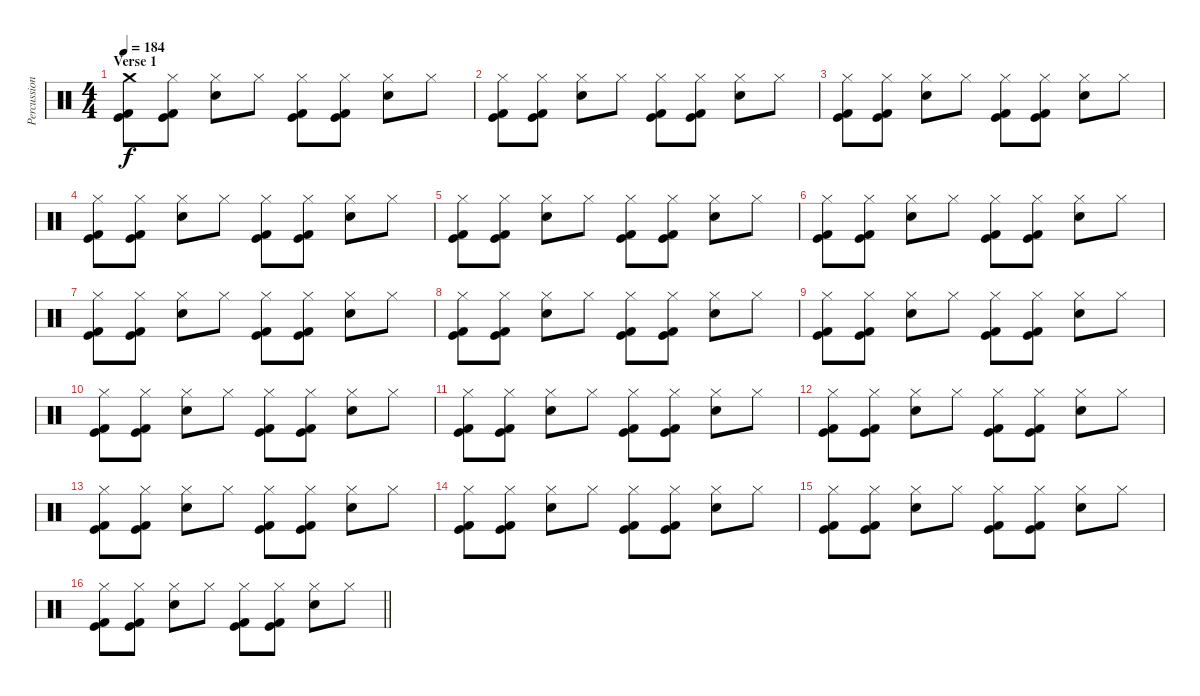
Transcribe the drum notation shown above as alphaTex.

\track ("Percussion" "Percussion") {instrument percussion}
\staff {score}
\articulation defaults
\ts (4 4)
\section ("" "Verse 1")
\tempo 184
\clef neutral
\ks c
("Crash medium (hit)" "Kick (hit)" "Kick (hit) 2").8{dy f} ("Hi-Hat (closed)" "Kick (hit)" "Kick (hit) 2").8 ("Hi-Hat (closed)" "Electric Snare (hit)").8 "Hi-Hat (closed)".8 ("Hi-Hat (closed)" "Kick (hit)" "Kick (hit) 2").8 ("Hi-Hat (closed)" "Kick (hit)" "Kick (hit) 2").8 ("Hi-Hat (closed)" "Electric Snare (hit)").8 "Hi-Hat (closed)".8 |
("Hi-Hat (closed)" "Kick (hit)" "Kick (hit) 2").8 ("Hi-Hat (closed)" "Kick (hit)" "Kick (hit) 2").8 ("Hi-Hat (closed)" "Electric Snare (hit)").8 "Hi-Hat (closed)".8 ("Hi-Hat (closed)" "Kick (hit)" "Kick (hit) 2").8 ("Hi-Hat (closed)" "Kick (hit)" "Kick (hit) 2").8 ("Hi-Hat (closed)" "Electric Snare (hit)").8 "Hi-Hat (closed)".8 |
("Hi-Hat (closed)" "Kick (hit)" "Kick (hit) 2").8 ("Hi-Hat (closed)" "Kick (hit)" "Kick (hit) 2").8 ("Hi-Hat (closed)" "Electric Snare (hit)").8 "Hi-Hat (closed)".8 ("Hi-Hat (closed)" "Kick (hit)" "Kick (hit) 2").8 ("Hi-Hat (closed)" "Kick (hit)" "Kick (hit) 2").8 ("Hi-Hat (closed)" "Electric Snare (hit)").8 "Hi-Hat (closed)".8 |
("Hi-Hat (closed)" "Kick (hit)" "Kick (hit) 2").8 ("Hi-Hat (closed)" "Kick (hit)" "Kick (hit) 2").8 ("Hi-Hat (closed)" "Electric Snare (hit)").8 "Hi-Hat (closed)".8 ("Hi-Hat (closed)" "Kick (hit)" "Kick (hit) 2").8 ("Hi-Hat (closed)" "Kick (hit)" "Kick (hit) 2").8 ("Hi-Hat (closed)" "Electric Snare (hit)").8 "Hi-Hat (closed)".8 |
("Hi-Hat (closed)" "Kick (hit)" "Kick (hit) 2").8 ("Hi-Hat (closed)" "Kick (hit)" "Kick (hit) 2").8 ("Hi-Hat (closed)" "Electric Snare (hit)").8 "Hi-Hat (closed)".8 ("Hi-Hat (closed)" "Kick (hit)" "Kick (hit) 2").8 ("Hi-Hat (closed)" "Kick (hit)" "Kick (hit) 2").8 ("Hi-Hat (closed)" "Electric Snare (hit)").8 "Hi-Hat (closed)".8 |
("Hi-Hat (closed)" "Kick (hit)" "Kick (hit) 2").8 ("Hi-Hat (closed)" "Kick (hit)" "Kick (hit) 2").8 ("Hi-Hat (closed)" "Electric Snare (hit)").8 "Hi-Hat (closed)".8 ("Hi-Hat (closed)" "Kick (hit)" "Kick (hit) 2").8 ("Hi-Hat (closed)" "Kick (hit)" "Kick (hit) 2").8 ("Hi-Hat (closed)" "Electric Snare (hit)").8 "Hi-Hat (closed)".8 |
("Hi-Hat (closed)" "Kick (hit)" "Kick (hit) 2").8 ("Hi-Hat (closed)" "Kick (hit)" "Kick (hit) 2").8 ("Hi-Hat (closed)" "Electric Snare (hit)").8 "Hi-Hat (closed)".8 ("Hi-Hat (closed)" "Kick (hit)" "Kick (hit) 2").8 ("Hi-Hat (closed)" "Kick (hit)" "Kick (hit) 2").8 ("Hi-Hat (closed)" "Electric Snare (hit)").8 "Hi-Hat (closed)".8 |
("Hi-Hat (closed)" "Kick (hit)" "Kick (hit) 2").8 ("Hi-Hat (closed)" "Kick (hit)" "Kick (hit) 2").8 ("Hi-Hat (closed)" "Electric Snare (hit)").8 "Hi-Hat (closed)".8 ("Hi-Hat (closed)" "Kick (hit)" "Kick (hit) 2").8 ("Hi-Hat (closed)" "Kick (hit)" "Kick (hit) 2").8 ("Hi-Hat (closed)" "Electric Snare (hit)").8 "Hi-Hat (closed)".8 |
("Hi-Hat (closed)" "Kick (hit)" "Kick (hit) 2").8 ("Hi-Hat (closed)" "Kick (hit)" "Kick (hit) 2").8 ("Hi-Hat (closed)" "Electric Snare (hit)").8 "Hi-Hat (closed)".8 ("Hi-Hat (closed)" "Kick (hit)" "Kick (hit) 2").8 ("Hi-Hat (closed)" "Kick (hit)" "Kick (hit) 2").8 ("Hi-Hat (closed)" "Electric Snare (hit)").8 "Hi-Hat (closed)".8 |
("Hi-Hat (closed)" "Kick (hit)" "Kick (hit) 2").8 ("Hi-Hat (closed)" "Kick (hit)" "Kick (hit) 2").8 ("Hi-Hat (closed)" "Electric Snare (hit)").8 "Hi-Hat (closed)".8 ("Hi-Hat (closed)" "Kick (hit)" "Kick (hit) 2").8 ("Hi-Hat (closed)" "Kick (hit)" "Kick (hit) 2").8 ("Hi-Hat (closed)" "Electric Snare (hit)").8 "Hi-Hat (closed)".8 |
("Hi-Hat (closed)" "Kick (hit)" "Kick (hit) 2").8 ("Hi-Hat (closed)" "Kick (hit)" "Kick (hit) 2").8 ("Hi-Hat (closed)" "Electric Snare (hit)").8 "Hi-Hat (closed)".8 ("Hi-Hat (closed)" "Kick (hit)" "Kick (hit) 2").8 ("Hi-Hat (closed)" "Kick (hit)" "Kick (hit) 2").8 ("Hi-Hat (closed)" "Electric Snare (hit)").8 "Hi-Hat (closed)".8 |
("Hi-Hat (closed)" "Kick (hit)" "Kick (hit) 2").8 ("Hi-Hat (closed)" "Kick (hit)" "Kick (hit) 2").8 ("Hi-Hat (closed)" "Electric Snare (hit)").8 "Hi-Hat (closed)".8 ("Hi-Hat (closed)" "Kick (hit)" "Kick (hit) 2").8 ("Hi-Hat (closed)" "Kick (hit)" "Kick (hit) 2").8 ("Hi-Hat (closed)" "Electric Snare (hit)").8 "Hi-Hat (closed)".8 |
("Hi-Hat (closed)" "Kick (hit)" "Kick (hit) 2").8 ("Hi-Hat (closed)" "Kick (hit)" "Kick (hit) 2").8 ("Hi-Hat (closed)" "Electric Snare (hit)").8 "Hi-Hat (closed)".8 ("Hi-Hat (closed)" "Kick (hit)" "Kick (hit) 2").8 ("Hi-Hat (closed)" "Kick (hit)" "Kick (hit) 2").8 ("Hi-Hat (closed)" "Electric Snare (hit)").8 "Hi-Hat (closed)".8 |
("Hi-Hat (closed)" "Kick (hit)" "Kick (hit) 2").8 ("Hi-Hat (closed)" "Kick (hit)" "Kick (hit) 2").8 ("Hi-Hat (closed)" "Electric Snare (hit)").8 "Hi-Hat (closed)".8 ("Hi-Hat (closed)" "Kick (hit)" "Kick (hit) 2").8 ("Hi-Hat (closed)" "Kick (hit)" "Kick (hit) 2").8 ("Hi-Hat (closed)" "Electric Snare (hit)").8 "Hi-Hat (closed)".8 |
("Hi-Hat (closed)" "Kick (hit)" "Kick (hit) 2").8 ("Hi-Hat (closed)" "Kick (hit)" "Kick (hit) 2").8 ("Hi-Hat (closed)" "Electric Snare (hit)").8 "Hi-Hat (closed)".8 ("Hi-Hat (closed)" "Kick (hit)" "Kick (hit) 2").8 ("Hi-Hat (closed)" "Kick (hit)" "Kick (hit) 2").8 ("Hi-Hat (closed)" "Electric Snare (hit)").8 "Hi-Hat (closed)".8 |
\barLineRight lightlight
("Hi-Hat (closed)" "Kick (hit)" "Kick (hit) 2").8 ("Hi-Hat (closed)" "Kick (hit)" "Kick (hit) 2").8 ("Hi-Hat (closed)" "Electric Snare (hit)").8 "Hi-Hat (closed)".8 ("Hi-Hat (closed)" "Kick (hit)" "Kick (hit) 2").8 ("Hi-Hat (closed)" "Kick (hit)" "Kick (hit) 2").8 ("Hi-Hat (closed)" "Electric Snare (hit)").8 "Hi-Hat (closed)".8
